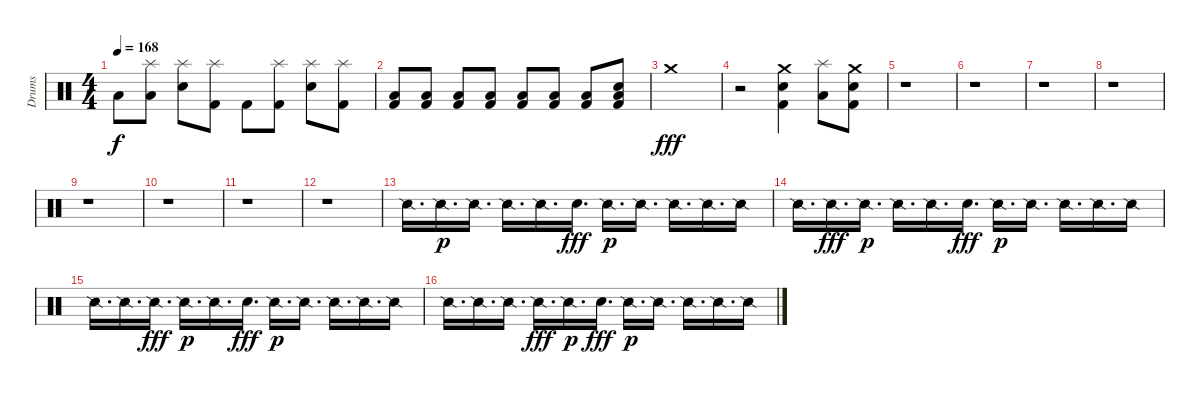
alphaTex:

\track ("Drums" "Drums") {instrument percussion}
\staff {score}
\articulation defaults
\ts (4 4)
\tempo 168
\clef neutral
\ks c "Low Floor Tom (hit)".8{dy f}
("Splash (hit)" "Low Floor Tom (hit)").8 ("Splash (hit)" "Electric Snare (hit)").8 ("Splash (hit)" "Kick (hit) 2").8 "Kick (hit) 2".8 ("Splash (hit)" "Kick (hit) 2").8 ("Splash (hit)" "Electric Snare (hit)").8 ("Splash (hit)" "Kick (hit) 2").8 |
("Low Floor Tom (hit)" "Kick (hit) 2").8 ("Low Floor Tom (hit)" "Kick (hit) 2").8 ("Low Floor Tom (hit)" "Kick (hit) 2").8 ("Low Floor Tom (hit)" "Kick (hit) 2").8 ("Low Floor Tom (hit)" "Kick (hit) 2").8 ("Low Floor Tom (hit)" "Kick (hit) 2").8 ("Low Floor Tom (hit)" "Kick (hit) 2").8 ("Electric Snare (hit)" "Low Floor Tom (hit)" "Kick (hit) 2").8 |
"Crash medium (hit)".1{dy fff} |
r.2 ("Crash medium (hit)" "Kick (hit) 2" "Electric Snare (hit)").4 ("Splash (hit)" "Low Floor Tom (hit)").8 ("Crash medium (hit)" "Electric Snare (hit)" "Kick (hit) 2").8 |
r.1 |
r.1 |
r.1 |
r.1 |
r.1 |
r.1 |
r.1 |
r.1 |
"Snare (side stick) 2".16{d} "Snare (side stick) 2".16{d dy p} "Snare (side stick) 2".16{d} "Snare (side stick) 2".16{d} "Snare (side stick) 2".16{d} "Electric Snare (hit)".16{d dy fff} "Snare (side stick) 2".16{d dy p} "Snare (side stick) 2".16{d} "Snare (side stick) 2".16{d} "Snare (side stick) 2".16{d} "Snare (side stick) 2".16 |
"Snare (side stick) 2".16{d} "Snare (side stick) 2".16{d dy fff} "Snare (side stick) 2".16{d dy p} "Snare (side stick) 2".16{d} "Snare (side stick) 2".16{d} "Electric Snare (hit)".16{d dy fff} "Snare (side stick) 2".16{d dy p} "Snare (side stick) 2".16{d} "Snare (side stick) 2".16{d} "Snare (side stick) 2".16{d} "Snare (side stick) 2".16 |
"Snare (side stick) 2".16{d} "Snare (side stick) 2".16{d} "Snare (side stick) 2".16{d dy fff} "Snare (side stick) 2".16{d dy p} "Snare (side stick) 2".16{d} "Electric Snare (hit)".16{d dy fff} "Snare (side stick) 2".16{d dy p} "Snare (side stick) 2".16{d} "Snare (side stick) 2".16{d} "Snare (side stick) 2".16{d} "Snare (side stick) 2".16 |
"Snare (side stick) 2".16{d} "Snare (side stick) 2".16{d} "Snare (side stick) 2".16{d} "Snare (side stick) 2".16{d dy fff} "Snare (side stick) 2".16{d dy p} "Electric Snare (hit)".16{d dy fff} "Snare (side stick) 2".16{d dy p} "Snare (side stick) 2".16{d} "Snare (side stick) 2".16{d} "Snare (side stick) 2".16{d} "Snare (side stick) 2".16
